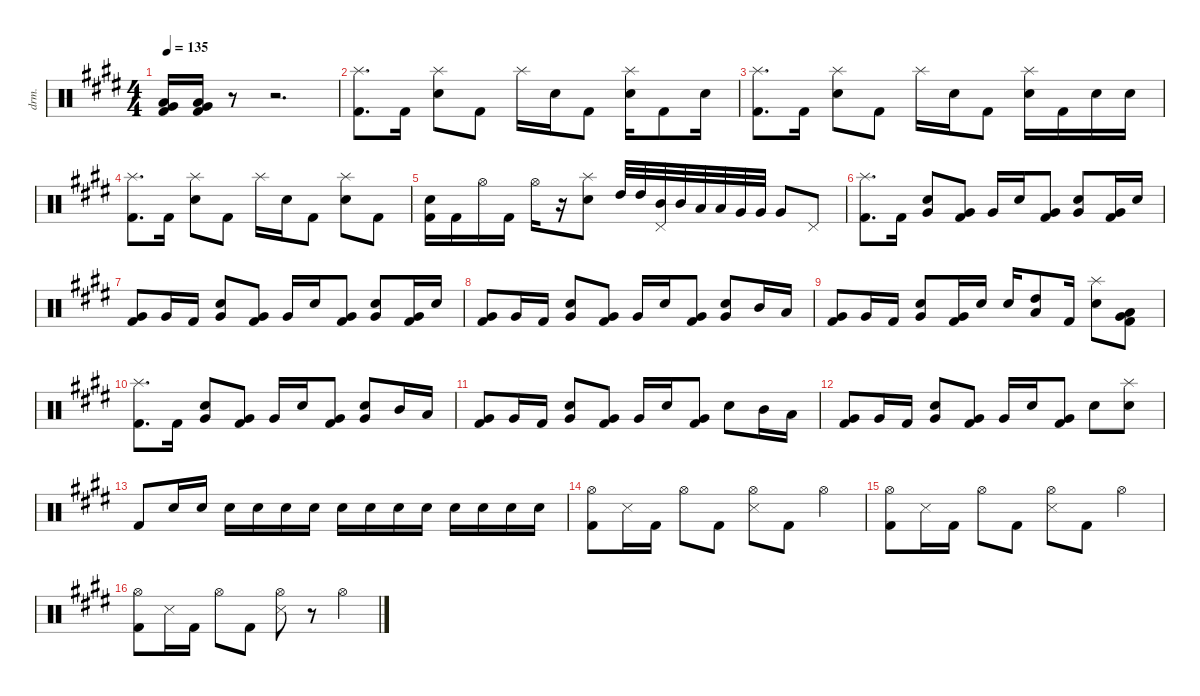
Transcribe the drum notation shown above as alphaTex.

\defaultSystemsLayout 4
\hideDynamics
\bracketExtendMode nobrackets
\track ("Drumkit" "drm.") {instrument percussion}
\staff {score}
\articulation defaults
\ts (4 4)
\tempo 135
\clef neutral
\ks e
("Low Tom (hit)"{acc forcenatural} "Very Low Tom (hit)"{acc forcenatural} "Kick (hit) 2"{acc forcenatural}).16{dy mf} ("Very Low Tom (hit)"{acc forcenatural} "Low Tom (hit)"{acc forcenatural} "Kick (hit) 2"{acc forcenatural}).16 r.8 r.2{d} |
("Splash (hit)"{acc forcenatural} "Kick (hit) 2"{acc forcenatural}).8{d} "Kick (hit) 2"{acc forcenatural}.16 ("Snare (hit) 2"{acc forcenatural} "Splash (hit)"{acc forcenatural}).8 "Kick (hit) 2"{acc forcenatural}.8 "Splash (hit)"{acc forcenatural}.16 "Snare (hit) 2"{acc forcenatural}.16 "Kick (hit) 2"{acc forcenatural}.8 ("Splash (hit)"{acc forcenatural} "Snare (hit) 2"{acc forcenatural}).16 "Kick (hit) 2"{acc forcenatural}.8 "Snare (hit) 2"{acc forcenatural}.16 |
("Splash (hit)"{acc forcenatural} "Kick (hit) 2"{acc forcenatural}).8{d} "Kick (hit) 2"{acc forcenatural}.16 ("Snare (hit) 2"{acc forcenatural} "Splash (hit)"{acc forcenatural}).8 "Kick (hit) 2"{acc forcenatural}.8 "Splash (hit)"{acc forcenatural}.16 "Snare (hit) 2"{acc forcenatural}.16 "Kick (hit) 2"{acc forcenatural}.8 ("Splash (hit)"{acc forcenatural} "Snare (hit) 2"{acc forcenatural}).16 "Kick (hit) 2"{acc forcenatural}.16 "Snare (hit) 2"{acc forcenatural}.16 "Snare (hit) 2"{acc forcenatural}.16 |
("Splash (hit)"{acc forcenatural} "Kick (hit) 2"{acc forcenatural}).8{d} "Kick (hit) 2"{acc forcenatural}.16 ("Snare (hit) 2"{acc forcenatural} "Splash (hit)"{acc forcenatural}).8 "Kick (hit) 2"{acc forcenatural}.8 "Splash (hit)"{acc forcenatural}.16 "Snare (hit) 2"{acc forcenatural}.16 "Kick (hit) 2"{acc forcenatural}.8 ("Splash (hit)"{acc forcenatural} "Snare (hit) 2"{acc forcenatural}).8 "Kick (hit) 2"{acc forcenatural}.8 |
("Kick (hit) 2"{acc forcenatural} "Snare (hit) 2"{acc forcenatural}).16 "Kick (hit) 2"{acc forcenatural}.16 "Hi-Hat (open)"{acc forcenatural}.16 "Kick (hit) 2"{acc forcenatural}.16 "Hi-Hat (open)"{acc forcenatural}.16 r.16 ("Splash (hit)"{acc forcenatural} "Snare (hit) 2"{acc forcenatural}).8 "High Tom (hit)"{acc forcenatural}.32 "High Tom (hit)"{acc forcenatural}.32 ("Mid Tom (hit)"{acc forcenatural} "Pedal Hi-Hat (hit)"{acc forcenatural}).32 "Mid Tom (hit)"{acc forcenatural}.32 "Low Tom (hit)"{acc forcenatural}.32 "Low Tom (hit)"{acc forcenatural}.32 "Very Low Tom (hit)"{acc forcenatural}.32 "Very Low Tom (hit)"{acc forcenatural}.32 "Very Low Tom (hit)"{acc forcenatural}.8 "Pedal Hi-Hat (hit)"{acc forcenatural}.8 |
("Splash (hit)"{acc forcenatural} "Kick (hit) 2"{acc forcenatural}).8{d} "Kick (hit) 2"{acc forcenatural}.16 ("Very Low Tom (hit)"{acc forcenatural} "Snare (hit) 2"{acc forcenatural}).8 ("Kick (hit) 2"{acc forcenatural} "Very Low Tom (hit)"{acc forcenatural}).8 "Very Low Tom (hit)"{acc forcenatural}.16 "Snare (hit) 2"{acc forcenatural}.16 ("Kick (hit) 2"{acc forcenatural} "Very Low Tom (hit)"{acc forcenatural}).8 ("Very Low Tom (hit)"{acc forcenatural} "Snare (hit) 2"{acc forcenatural}).8 ("Kick (hit) 2"{acc forcenatural} "Very Low Tom (hit)"{acc forcenatural}).16 "Snare (hit) 2"{acc forcenatural}.16 |
("Very Low Tom (hit)"{acc forcenatural} "Kick (hit) 2"{acc forcenatural}).8 "Very Low Tom (hit)"{acc forcenatural}.16 "Kick (hit) 2"{acc forcenatural}.16 ("Very Low Tom (hit)"{acc forcenatural} "Snare (hit) 2"{acc forcenatural}).8 ("Kick (hit) 2"{acc forcenatural} "Very Low Tom (hit)"{acc forcenatural}).8 "Very Low Tom (hit)"{acc forcenatural}.16 "Snare (hit) 2"{acc forcenatural}.16 ("Kick (hit) 2"{acc forcenatural} "Very Low Tom (hit)"{acc forcenatural}).8 ("Very Low Tom (hit)"{acc forcenatural} "Snare (hit) 2"{acc forcenatural}).8 ("Kick (hit) 2"{acc forcenatural} "Very Low Tom (hit)"{acc forcenatural}).16 "Snare (hit) 2"{acc forcenatural}.16 |
("Very Low Tom (hit)"{acc forcenatural} "Kick (hit) 2"{acc forcenatural}).8 "Very Low Tom (hit)"{acc forcenatural}.16 "Kick (hit) 2"{acc forcenatural}.16 ("Very Low Tom (hit)"{acc forcenatural} "Snare (hit) 2"{acc forcenatural}).8 ("Kick (hit) 2"{acc forcenatural} "Very Low Tom (hit)"{acc forcenatural}).8 "Very Low Tom (hit)"{acc forcenatural}.16 "Snare (hit) 2"{acc forcenatural}.16 ("Kick (hit) 2"{acc forcenatural} "Very Low Tom (hit)"{acc forcenatural}).8 ("Very Low Tom (hit)"{acc forcenatural} "Snare (hit) 2"{acc forcenatural}).8 "Mid Tom (hit)"{acc forcenatural}.16 "Low Tom (hit)"{acc forcenatural}.16 |
("Very Low Tom (hit)"{acc forcenatural} "Kick (hit) 2"{acc forcenatural}).8 "Very Low Tom (hit)"{acc forcenatural}.16 "Kick (hit) 2"{acc forcenatural}.16 ("Very Low Tom (hit)"{acc forcenatural} "Snare (hit) 2"{acc forcenatural}).8 ("Kick (hit) 2"{acc forcenatural} "Very Low Tom (hit)"{acc forcenatural}).16 "Snare (hit) 2"{acc forcenatural}.16 "Snare (hit) 2"{acc forcenatural}.16 ("High Tom (hit)"{acc forcenatural} "Low Tom (hit)"{acc forcenatural}).8 "Kick (hit) 2"{acc forcenatural}.16 ("Splash (hit)"{acc forcenatural} "Snare (hit) 2"{acc forcenatural}).8 ("Kick (hit) 2"{acc forcenatural} "Very Low Tom (hit)"{acc forcenatural} "Low Tom (hit)"{acc forcenatural}).8 |
("Splash (hit)"{acc forcenatural} "Kick (hit) 2"{acc forcenatural}).8{d} "Kick (hit) 2"{acc forcenatural}.16 ("Very Low Tom (hit)"{acc forcenatural} "Snare (hit) 2"{acc forcenatural}).8 ("Kick (hit) 2"{acc forcenatural} "Very Low Tom (hit)"{acc forcenatural}).8 "Very Low Tom (hit)"{acc forcenatural}.16 "Snare (hit) 2"{acc forcenatural}.16 ("Kick (hit) 2"{acc forcenatural} "Very Low Tom (hit)"{acc forcenatural}).8 ("Very Low Tom (hit)"{acc forcenatural} "Snare (hit) 2"{acc forcenatural}).8 "Mid Tom (hit)"{acc forcenatural}.16 "Low Tom (hit)"{acc forcenatural}.16 |
("Very Low Tom (hit)"{acc forcenatural} "Kick (hit) 2"{acc forcenatural}).8 "Very Low Tom (hit)"{acc forcenatural}.16 "Kick (hit) 2"{acc forcenatural}.16 ("Very Low Tom (hit)"{acc forcenatural} "Snare (hit) 2"{acc forcenatural}).8 ("Kick (hit) 2"{acc forcenatural} "Very Low Tom (hit)"{acc forcenatural}).8 "Very Low Tom (hit)"{acc forcenatural}.16 "Snare (hit) 2"{acc forcenatural}.16 ("Kick (hit) 2"{acc forcenatural} "Very Low Tom (hit)"{acc forcenatural}).8 "Snare (hit) 2"{acc forcenatural}.8 "Mid Tom (hit)"{acc forcenatural}.16 "Low Tom (hit)"{acc forcenatural}.16 |
("Very Low Tom (hit)"{acc forcenatural} "Kick (hit) 2"{acc forcenatural}).8 "Very Low Tom (hit)"{acc forcenatural}.16 "Kick (hit) 2"{acc forcenatural}.16 ("Very Low Tom (hit)"{acc forcenatural} "Snare (hit) 2"{acc forcenatural}).8 ("Kick (hit) 2"{acc forcenatural} "Very Low Tom (hit)"{acc forcenatural}).8 "Very Low Tom (hit)"{acc forcenatural}.16 "Snare (hit) 2"{acc forcenatural}.16 ("Kick (hit) 2"{acc forcenatural} "Very Low Tom (hit)"{acc forcenatural}).8 "Snare (hit) 2"{acc forcenatural}.8 ("Snare (hit) 2"{acc forcenatural} "Splash (hit)"{acc forcenatural}).8 |
"Kick (hit) 2"{acc forcenatural}.8 "Snare (hit) 2"{acc forcenatural}.16 "Snare (hit) 2"{acc forcenatural}.16 "Snare (hit) 2"{acc forcenatural}.16 "Snare (hit) 2"{acc forcenatural}.16 "Snare (hit) 2"{acc forcenatural}.16 "Snare (hit) 2"{acc forcenatural}.16 "Snare (hit) 2"{acc forcenatural}.16 "Snare (hit) 2"{acc forcenatural}.16 "Snare (hit) 2"{acc forcenatural}.16 "Snare (hit) 2"{acc forcenatural}.16 "Snare (hit) 2"{acc forcenatural}.16 "Snare (hit) 2"{acc forcenatural}.16 "Snare (hit) 2"{acc forcenatural}.16 "Snare (hit) 2"{acc forcenatural}.16 |
("Hi-Hat (open)"{acc forcenatural} "Kick (hit) 2"{acc forcenatural}).8 "Snare (side stick) 3"{acc forcenatural}.16 "Kick (hit) 2"{acc forcenatural}.16 "Hi-Hat (open)"{acc forcenatural}.8 "Kick (hit) 2"{acc forcenatural}.8 ("Hi-Hat (open)"{acc forcenatural} "Snare (side stick) 3"{acc forcenatural}).8 "Kick (hit) 2"{acc forcenatural}.8 "Hi-Hat (open)"{acc forcenatural}.4 |
("Hi-Hat (open)"{acc forcenatural} "Kick (hit) 2"{acc forcenatural}).8 "Snare (side stick) 3"{acc forcenatural}.16 "Kick (hit) 2"{acc forcenatural}.16 "Hi-Hat (open)"{acc forcenatural}.8 "Kick (hit) 2"{acc forcenatural}.8 ("Hi-Hat (open)"{acc forcenatural} "Snare (side stick) 3"{acc forcenatural}).8 "Kick (hit) 2"{acc forcenatural}.8 "Hi-Hat (open)"{acc forcenatural}.4 |
("Hi-Hat (open)"{acc forcenatural} "Kick (hit) 2"{acc forcenatural}).8 "Snare (side stick) 3"{acc forcenatural}.16 "Kick (hit) 2"{acc forcenatural}.16 "Hi-Hat (open)"{acc forcenatural}.8 "Kick (hit) 2"{acc forcenatural}.8 ("Hi-Hat (open)"{acc forcenatural} "Snare (side stick) 3"{acc forcenatural}).8 r.8 "Hi-Hat (open)"{acc forcenatural}.4
